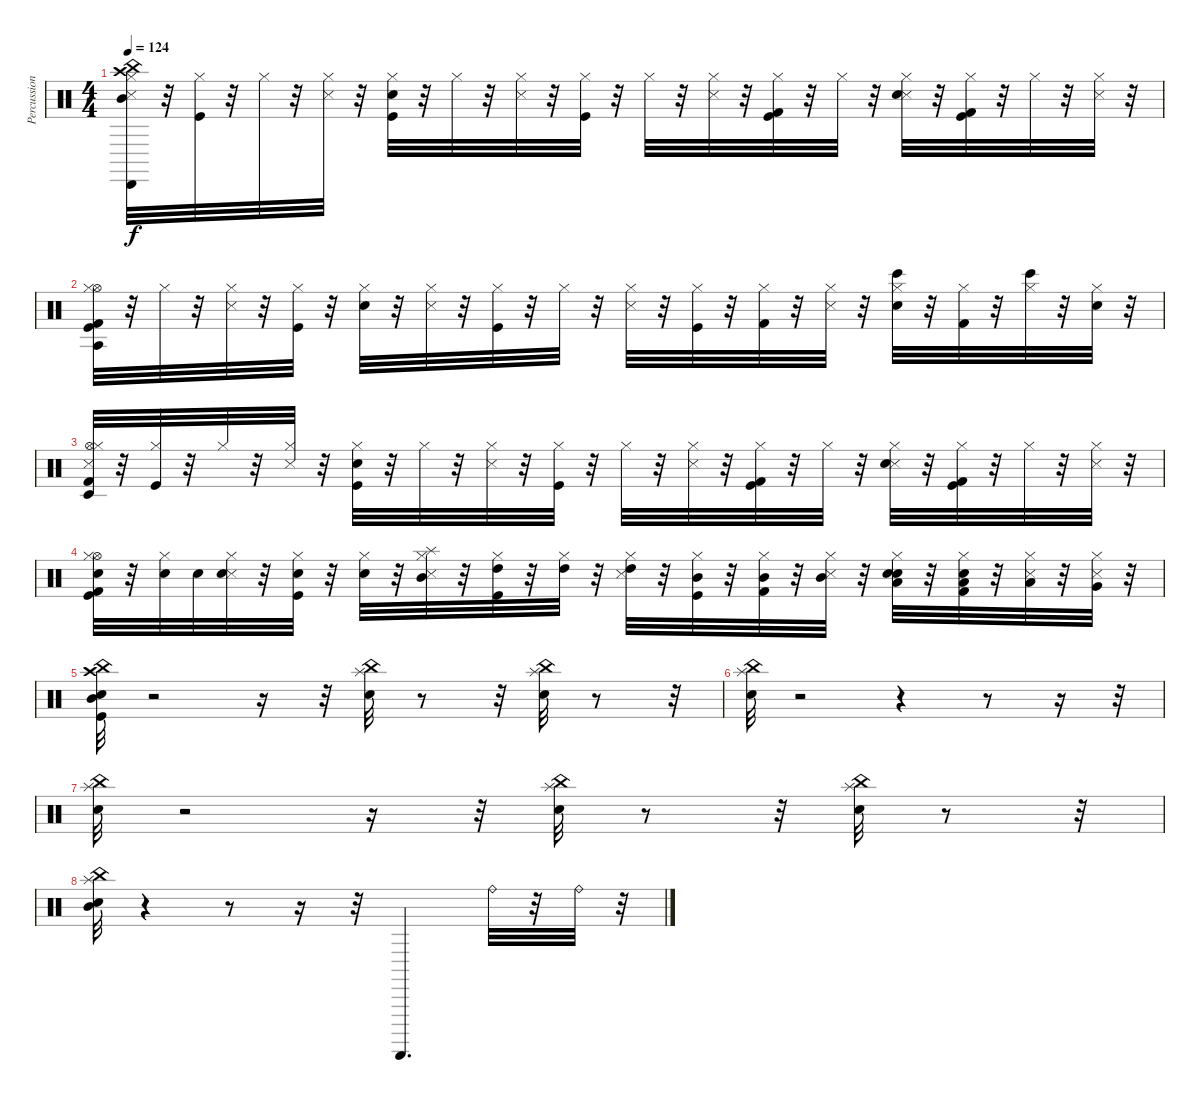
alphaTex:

\track ("Percussions" "Percussion") {instrument percussion}
\staff {score}
\articulation defaults
\ts (4 4)
\tempo 124
\clef neutral
\ks c
("Mid Tom (hit)" "Cabasa (hit)" "Metronome (hit)" "Crash high (hit)" "China (hit)" "Hi-Hat (closed)").32{dy f} r.32 ("Kick (hit)" "Hi-Hat (closed)").32 r.32 "Hi-Hat (closed)".32 r.32 ("Metronome (hit)" "Hi-Hat (closed)").32 r.32 ("Kick (hit)" "Hi-Hat (closed)" "Electric Snare (hit)").32 r.32 "Hi-Hat (closed)".32 r.32 ("Metronome (hit)" "Hi-Hat (closed)").32 r.32 ("Kick (hit)" "Hi-Hat (closed)").32 r.32 "Hi-Hat (closed)".32 r.32 ("Metronome (hit)" "Hi-Hat (closed)").32 r.32 ("Kick (hit)" "Hi-Hat (closed)" "Kick (hit) 2").32 r.32 "Hi-Hat (closed)".32 r.32 ("Metronome (hit)" "Hi-Hat (closed)" "Electric Snare (hit)").32 r.32 ("Kick (hit)" "Kick (hit) 2" "Hi-Hat (closed)").32 r.32 "Hi-Hat (closed)".32 r.32 ("Metronome (hit)" "Hi-Hat (closed)").32 r.32 |
("Agogo tow (hit)" "Kick (hit)" "Hi-Hat (open)" "Kick (hit) 2" "Hi-Hat (closed)").32 r.32 "Hi-Hat (closed)".32 r.32 ("Metronome (hit)" "Hi-Hat (closed)").32 r.32 ("Kick (hit)" "Hi-Hat (closed)").32 r.32 ("Electric Snare (hit)" "Hi-Hat (closed)").32 r.32 ("Metronome (hit)" "Hi-Hat (closed)").32 r.32 ("Kick (hit)" "Hi-Hat (closed)").32 r.32 "Hi-Hat (closed)".32 r.32 ("Metronome (hit)" "Hi-Hat (closed)").32 r.32 ("Kick (hit)" "Hi-Hat (closed)").32 r.32 ("Hi-Hat (closed)" "Kick (hit) 2").32 r.32 ("Metronome (hit)" "Hi-Hat (closed)").32 r.32 ("Bongo High (hit)" "Electric Snare (hit)" "Hi-Hat (closed)").32 r.32 ("Kick (hit) 2" "Hi-Hat (closed)").32 r.32 ("Bongo High (hit)" "Hi-Hat (closed)").32 r.32 ("Hi-Hat (closed)" "Electric Snare (hit)").32 r.32 |
("Timbale low (hit)" "Metronome (hit)" "Kick (hit) 2" "Hi-Hat (open)" "Hi-Hat (closed)").32 r.32 ("Kick (hit)" "Hi-Hat (closed)").32 r.32 "Hi-Hat (closed)".32 r.32 ("Metronome (hit)" "Hi-Hat (closed)").32 r.32 ("Kick (hit)" "Electric Snare (hit)" "Hi-Hat (closed)").32 r.32 "Hi-Hat (closed)".32 r.32 ("Metronome (hit)" "Hi-Hat (closed)").32 r.32 ("Kick (hit)" "Hi-Hat (closed)").32 r.32 "Hi-Hat (closed)".32 r.32 ("Metronome (hit)" "Hi-Hat (closed)").32 r.32 ("Kick (hit)" "Kick (hit) 2" "Hi-Hat (closed)").32 r.32 "Hi-Hat (closed)".32 r.32 ("Metronome (hit)" "Electric Snare (hit)" "Hi-Hat (closed)").32 r.32 ("Kick (hit)" "Kick (hit) 2" "Hi-Hat (closed)").32 r.32 "Hi-Hat (closed)".32 r.32 ("Metronome (hit)" "Hi-Hat (closed)").32 r.32 |
("Kick (hit)" "Electric Snare (hit)" "Hi-Hat (open)" "Kick (hit) 2" "Hi-Hat (closed)").32 r.32 ("Electric Snare (hit)" "Hi-Hat (closed)").32 "Electric Snare (hit)".32 ("Metronome (hit)" "Electric Snare (hit)" "Hi-Hat (closed)").32 r.32 ("Kick (hit)" "Electric Snare (hit)" "Hi-Hat (closed)").32 r.32 ("Hi-Hat (closed)" "Electric Snare (hit)").32 r.32 ("Mid Tom (hit)" "Metronome (hit)" "Splash (hit)" "Hi-Hat (closed)").32 r.32 ("Kick (hit)" "High Tom (hit)" "Hi-Hat (closed)").32 r.32 ("High Tom (hit)" "Hi-Hat (closed)").32 r.32 ("Metronome (hit)" "High Tom (hit)" "Hi-Hat (closed)").32 r.32 ("Kick (hit)" "Mid Tom (hit)" "Hi-Hat (closed)").32 r.32 ("Mid Tom (hit)" "Kick (hit) 2" "Hi-Hat (closed)").32 r.32 ("Metronome (hit)" "Mid Tom (hit)" "Hi-Hat (closed)").32 r.32 ("Hand Clap (hit)" "Low Tom (hit)" "Hi-Hat (closed)" "Electric Snare (hit)").32 r.32 ("Hand Clap (hit)" "Low Tom (hit)" "Kick (hit) 2" "Hi-Hat (closed)").32 r.32 ("Snare (side stick) 3" "Low Tom (hit)" "Hi-Hat (closed)").32 r.32 ("Snare (side stick) 3" "Very Low Tom (hit)" "Hi-Hat (closed)").32 r.32 |
("Snare (hit)" "Mid Tom (hit)" "Crash high (hit)" "China (hit)" "Kick (hit)").32 r.2 r.16 r.32 ("Snare (hit)" "China (hit)" "Splash (hit)").32 r.8 r.32 ("Snare (hit)" "China (hit)" "Splash (hit)").32 r.8 r.32 |
("Snare (hit)" "China (hit)" "Splash (hit)").32 r.2 r.4 r.8 r.16 r.32 |
("Snare (hit)" "China (hit)" "Splash (hit)").32 r.2 r.16 r.32 ("Snare (hit)" "Splash (hit)" "China (hit)").32 r.8 r.32 ("Snare (hit)" "Splash (hit)" "China (hit)").32 r.8 r.32 |
("Snare (hit)" "Mid Tom (hit)" "Splash (hit)" "China (hit)").32 r.4 r.8 r.16 r.32 "Guiro (scrap-return)".4{d} "Ride (bell)".32 r.32 "Ride (bell)".32 r.32
